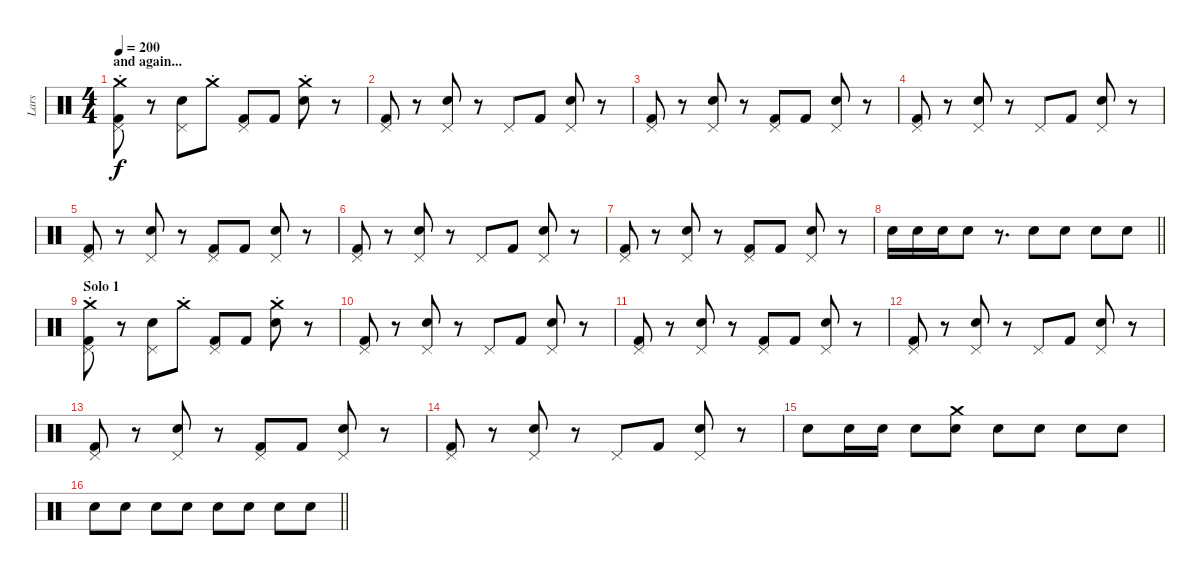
\track ("Lars" "Lars") {instrument percussion}
\staff {score}
\articulation defaults
\ts (4 4)
\section ("" "and again...")
\tempo 200
\clef neutral
\ks c
("Crash medium (hit)"{st} "Pedal Hi-Hat (hit)" "Kick (hit) 2").8{dy f} r.8 ("Pedal Hi-Hat (hit)" "Snare (hit) 2").8 "Crash medium (hit)"{st}.8 ("Pedal Hi-Hat (hit)" "Kick (hit) 2").8 "Kick (hit) 2".8 ("Crash medium (hit)"{st} "Snare (hit) 2").8 r.8 |
("Pedal Hi-Hat (hit)" "Kick (hit) 2").8 r.8 ("Pedal Hi-Hat (hit)" "Snare (hit) 2").8 r.8 "Pedal Hi-Hat (hit)".8 "Kick (hit) 2".8 ("Pedal Hi-Hat (hit)" "Snare (hit) 2").8 r.8 |
("Pedal Hi-Hat (hit)" "Kick (hit) 2").8 r.8 ("Pedal Hi-Hat (hit)" "Snare (hit) 2").8 r.8 ("Pedal Hi-Hat (hit)" "Kick (hit) 2").8 "Kick (hit) 2".8 ("Pedal Hi-Hat (hit)" "Snare (hit) 2").8 r.8 |
("Pedal Hi-Hat (hit)" "Kick (hit) 2").8 r.8 ("Pedal Hi-Hat (hit)" "Snare (hit) 2").8 r.8 "Pedal Hi-Hat (hit)".8 "Kick (hit) 2".8 ("Pedal Hi-Hat (hit)" "Snare (hit) 2").8 r.8 |
("Pedal Hi-Hat (hit)" "Kick (hit) 2").8 r.8 ("Pedal Hi-Hat (hit)" "Snare (hit) 2").8 r.8 ("Pedal Hi-Hat (hit)" "Kick (hit) 2").8 "Kick (hit) 2".8 ("Pedal Hi-Hat (hit)" "Snare (hit) 2").8 r.8 |
("Pedal Hi-Hat (hit)" "Kick (hit) 2").8 r.8 ("Pedal Hi-Hat (hit)" "Snare (hit) 2").8 r.8 "Pedal Hi-Hat (hit)".8 "Kick (hit) 2".8 ("Pedal Hi-Hat (hit)" "Snare (hit) 2").8 r.8 |
("Pedal Hi-Hat (hit)" "Kick (hit) 2").8 r.8 ("Pedal Hi-Hat (hit)" "Snare (hit) 2").8 r.8 ("Pedal Hi-Hat (hit)" "Kick (hit) 2").8 "Kick (hit) 2".8 ("Pedal Hi-Hat (hit)" "Snare (hit) 2").8 r.8 |
\barLineRight lightlight "Snare (hit) 2".16 "Snare (hit) 2".16 "Snare (hit) 2".16 "Snare (hit) 2".8
r.8{d} "Snare (hit) 2".8 "Snare (hit) 2".8 "Snare (hit) 2".8 "Snare (hit) 2".8 |
\section ("" "Solo 1")
("Crash medium (hit)"{st} "Pedal Hi-Hat (hit)" "Kick (hit) 2").8 r.8 ("Pedal Hi-Hat (hit)" "Snare (hit) 2").8 "Crash medium (hit)"{st}.8 ("Pedal Hi-Hat (hit)" "Kick (hit) 2").8 "Kick (hit) 2".8 ("Crash medium (hit)"{st} "Snare (hit) 2").8 r.8 |
("Pedal Hi-Hat (hit)" "Kick (hit) 2").8 r.8 ("Pedal Hi-Hat (hit)" "Snare (hit) 2").8 r.8 "Pedal Hi-Hat (hit)".8 "Kick (hit) 2".8 ("Pedal Hi-Hat (hit)" "Snare (hit) 2").8 r.8 |
("Pedal Hi-Hat (hit)" "Kick (hit) 2").8 r.8 ("Pedal Hi-Hat (hit)" "Snare (hit) 2").8 r.8 ("Pedal Hi-Hat (hit)" "Kick (hit) 2").8 "Kick (hit) 2".8 ("Pedal Hi-Hat (hit)" "Snare (hit) 2").8 r.8 |
("Pedal Hi-Hat (hit)" "Kick (hit) 2").8 r.8 ("Pedal Hi-Hat (hit)" "Snare (hit) 2").8 r.8 "Pedal Hi-Hat (hit)".8 "Kick (hit) 2".8 ("Pedal Hi-Hat (hit)" "Snare (hit) 2").8 r.8 |
("Pedal Hi-Hat (hit)" "Kick (hit) 2").8 r.8 ("Pedal Hi-Hat (hit)" "Snare (hit) 2").8 r.8 ("Pedal Hi-Hat (hit)" "Kick (hit) 2").8 "Kick (hit) 2".8 ("Pedal Hi-Hat (hit)" "Snare (hit) 2").8 r.8 |
("Pedal Hi-Hat (hit)" "Kick (hit) 2").8 r.8 ("Pedal Hi-Hat (hit)" "Snare (hit) 2").8 r.8 "Pedal Hi-Hat (hit)".8 "Kick (hit) 2".8 ("Pedal Hi-Hat (hit)" "Snare (hit) 2").8 r.8 |
"Snare (hit) 2".8 "Snare (hit) 2".16 "Snare (hit) 2".16 "Snare (hit) 2".8 ("Crash medium (hit)" "Snare (hit) 2").8 "Snare (hit) 2".8 "Snare (hit) 2".8 "Snare (hit) 2".8 "Snare (hit) 2".8 |
\barLineRight lightlight "Snare (hit) 2".8 "Snare (hit) 2".8 "Snare (hit) 2".8 "Snare (hit) 2".8 "Snare (hit) 2".8 "Snare (hit) 2".8 "Snare (hit) 2".8 "Snare (hit) 2".8
